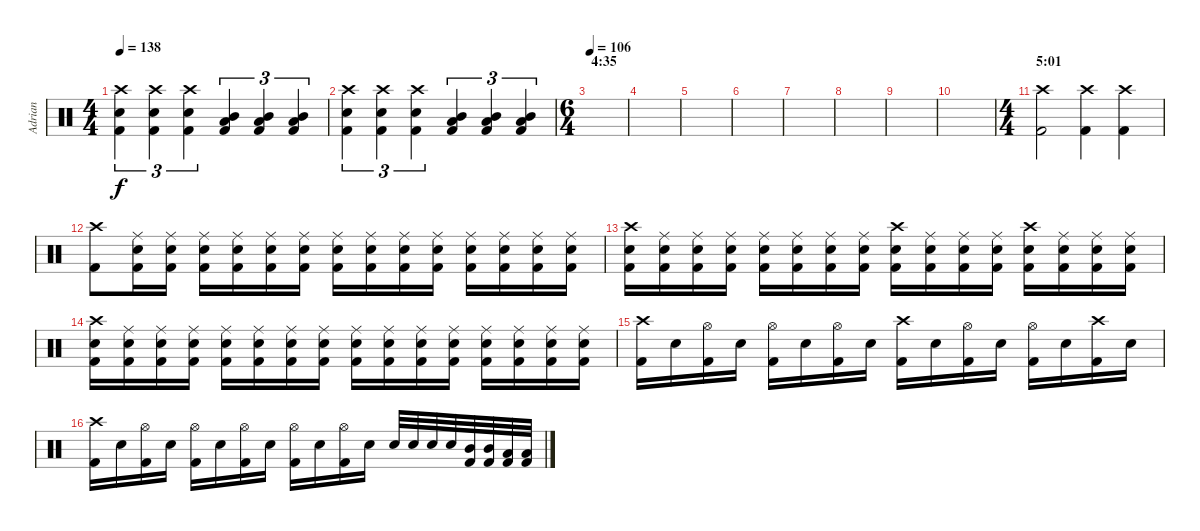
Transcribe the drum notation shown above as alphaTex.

\track ("Adrian" "Adrian") {instrument percussion}
\staff {score}
\articulation defaults
\ts (4 4)
\tempo 138
\clef neutral
\ks c
("Kick (hit) 2" "Snare (hit) 2" "Crash high (hit)").4{tu (3 2) dy f} ("Kick (hit) 2" "Snare (hit) 2" "Crash high (hit)").4{tu (3 2)} ("Kick (hit) 2" "Snare (hit) 2" "Crash high (hit)").4{tu (3 2)} ("Kick (hit) 2" "Low Tom (hit)" "Mid Tom (hit)").4{tu (3 2)} ("Kick (hit) 2" "Low Tom (hit)" "Mid Tom (hit)").4{tu (3 2)} ("Kick (hit) 2" "Low Tom (hit)" "Mid Tom (hit)").4{tu (3 2)} |
("Kick (hit) 2" "Snare (hit) 2" "Crash high (hit)").4{tu (3 2)} ("Kick (hit) 2" "Snare (hit) 2" "Crash high (hit)").4{tu (3 2)} ("Kick (hit) 2" "Snare (hit) 2" "Crash high (hit)").4{tu (3 2)} ("Kick (hit) 2" "Low Tom (hit)" "Mid Tom (hit)").4{tu (3 2)} ("Kick (hit) 2" "Low Tom (hit)" "Mid Tom (hit)").4{tu (3 2)} ("Kick (hit) 2" "Low Tom (hit)" "Mid Tom (hit)").4{tu (3 2)} |
\ts (6 4)
\section ("" "4:35")
\tempo 106
|
|
|
|
|
|
|
|
\ts (4 4)
\section ("" "5:01")
("Kick (hit) 2" "Crash high (hit)").2 ("Kick (hit) 2" "Crash high (hit)").4 ("Kick (hit) 2" "Crash high (hit)").4 |
("Kick (hit) 2" "Crash high (hit)").8 ("Kick (hit) 2" "Snare (hit) 2" "Ride (middle)").16 ("Kick (hit) 2" "Snare (hit) 2" "Ride (middle)").16 ("Kick (hit) 2" "Snare (hit) 2" "Ride (middle)").16 ("Kick (hit) 2" "Snare (hit) 2" "Ride (middle)").16 ("Kick (hit) 2" "Snare (hit) 2" "Ride (middle)").16 ("Kick (hit) 2" "Snare (hit) 2" "Ride (middle)").16 ("Kick (hit) 2" "Snare (hit) 2" "Ride (middle)").16 ("Kick (hit) 2" "Snare (hit) 2" "Ride (middle)").16 ("Kick (hit) 2" "Snare (hit) 2" "Ride (middle)").16 ("Kick (hit) 2" "Snare (hit) 2" "Ride (middle)").16 ("Kick (hit) 2" "Snare (hit) 2" "Ride (middle)").16 ("Kick (hit) 2" "Snare (hit) 2" "Ride (middle)").16 ("Kick (hit) 2" "Snare (hit) 2" "Ride (middle)").16 ("Kick (hit) 2" "Snare (hit) 2" "Ride (middle)").16 |
("Kick (hit) 2" "Snare (hit) 2" "Crash high (hit)").16 ("Kick (hit) 2" "Snare (hit) 2" "Ride (middle)").16 ("Kick (hit) 2" "Snare (hit) 2" "Ride (middle)").16 ("Kick (hit) 2" "Snare (hit) 2" "Ride (middle)").16 ("Kick (hit) 2" "Snare (hit) 2" "Ride (middle)").16 ("Kick (hit) 2" "Snare (hit) 2" "Ride (middle)").16 ("Kick (hit) 2" "Snare (hit) 2" "Ride (middle)").16 ("Kick (hit) 2" "Snare (hit) 2" "Ride (middle)").16 ("Kick (hit) 2" "Snare (hit) 2" "Crash high (hit)").16 ("Kick (hit) 2" "Snare (hit) 2" "Ride (middle)").16 ("Kick (hit) 2" "Snare (hit) 2" "Ride (middle)").16 ("Kick (hit) 2" "Snare (hit) 2" "Ride (middle)").16 ("Kick (hit) 2" "Snare (hit) 2" "Crash high (hit)").16 ("Kick (hit) 2" "Snare (hit) 2" "Ride (middle)").16 ("Kick (hit) 2" "Snare (hit) 2" "Ride (middle)").16 ("Kick (hit) 2" "Snare (hit) 2" "Ride (middle)").16 |
("Kick (hit) 2" "Snare (hit) 2" "Crash high (hit)").16 ("Kick (hit) 2" "Snare (hit) 2" "Ride (middle)").16 ("Kick (hit) 2" "Snare (hit) 2" "Ride (middle)").16 ("Kick (hit) 2" "Snare (hit) 2" "Ride (middle)").16 ("Kick (hit) 2" "Snare (hit) 2" "Ride (middle)").16 ("Kick (hit) 2" "Snare (hit) 2" "Ride (middle)").16 ("Kick (hit) 2" "Snare (hit) 2" "Ride (middle)").16 ("Kick (hit) 2" "Snare (hit) 2" "Ride (middle)").16 ("Kick (hit) 2" "Snare (hit) 2" "Ride (middle)").16 ("Kick (hit) 2" "Snare (hit) 2" "Ride (middle)").16 ("Kick (hit) 2" "Snare (hit) 2" "Ride (middle)").16 ("Kick (hit) 2" "Snare (hit) 2" "Ride (middle)").16 ("Kick (hit) 2" "Snare (hit) 2" "Ride (middle)").16 ("Kick (hit) 2" "Snare (hit) 2" "Ride (middle)").16 ("Kick (hit) 2" "Snare (hit) 2" "Ride (middle)").16 ("Kick (hit) 2" "Snare (hit) 2" "Ride (middle)").16 |
("Kick (hit) 2" "Crash high (hit)").16 "Snare (hit) 2".16 ("Kick (hit) 2" "Hi-Hat (open)").16 "Snare (hit) 2".16 ("Kick (hit) 2" "Hi-Hat (open)").16 "Snare (hit) 2".16 ("Kick (hit) 2" "Hi-Hat (open)").16 "Snare (hit) 2".16 ("Kick (hit) 2" "Crash high (hit)").16 "Snare (hit) 2".16 ("Kick (hit) 2" "Hi-Hat (open)").16 "Snare (hit) 2".16 ("Kick (hit) 2" "Hi-Hat (open)").16 "Snare (hit) 2".16 ("Kick (hit) 2" "Crash high (hit)").16 "Snare (hit) 2".16 |
("Kick (hit) 2" "Crash high (hit)").16 "Snare (hit) 2".16 ("Kick (hit) 2" "Hi-Hat (open)").16 "Snare (hit) 2".16 ("Kick (hit) 2" "Hi-Hat (open)").16 "Snare (hit) 2".16 ("Kick (hit) 2" "Hi-Hat (open)").16 "Snare (hit) 2".16 ("Kick (hit) 2" "Hi-Hat (open)").16 "Snare (hit) 2".16 ("Kick (hit) 2" "Hi-Hat (open)").16 "Snare (hit) 2".16 "Snare (hit) 2".32 "Snare (hit) 2".32 "Snare (hit) 2".32 "Snare (hit) 2".32 ("Kick (hit) 2" "Mid Tom (hit)").32 ("Kick (hit) 2" "Mid Tom (hit)").32 ("Kick (hit) 2" "Low Tom (hit)").32 ("Kick (hit) 2" "Low Tom (hit)").32
